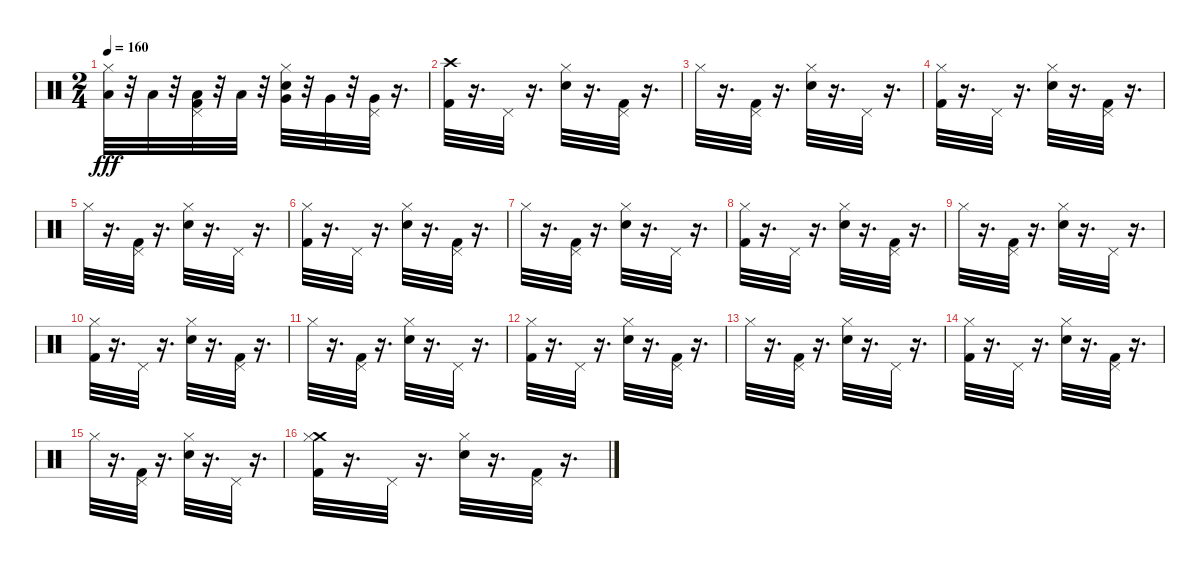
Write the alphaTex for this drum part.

\track "" {instrument percussion}
\staff {score}
\articulation defaults
\ts (2 4)
\tempo 160
\clef neutral
\ks c
("Low Tom (hit)" "Hi-Hat (closed)").32{dy fff} r.32 "Low Tom (hit)".32 r.32 ("Low Tom (hit)" "Pedal Hi-Hat (hit)" "Kick (hit) 2").32 r.32 "Low Tom (hit)".32 r.32 ("Very Low Tom (hit)" "Hi-Hat (closed)" "Snare (hit) 2").32 r.32 "Very Low Tom (hit)".32 r.32 ("Very Low Tom (hit)" "Pedal Hi-Hat (hit)").32 r.16{d} |
("Crash high (hit)" "Kick (hit) 2").32 r.16{d} "Pedal Hi-Hat (hit)".32 r.16{d} ("Hi-Hat (closed)" "Snare (hit) 2").32 r.16{d} ("Pedal Hi-Hat (hit)" "Kick (hit) 2").32 r.16{d} |
"Hi-Hat (closed)".32 r.16{d} ("Pedal Hi-Hat (hit)" "Kick (hit) 2").32 r.16{d} ("Hi-Hat (closed)" "Snare (hit) 2").32 r.16{d} "Pedal Hi-Hat (hit)".32 r.16{d} |
("Hi-Hat (closed)" "Kick (hit) 2").32 r.16{d} "Pedal Hi-Hat (hit)".32 r.16{d} ("Hi-Hat (closed)" "Snare (hit) 2").32 r.16{d} ("Pedal Hi-Hat (hit)" "Kick (hit) 2").32 r.16{d} |
"Hi-Hat (closed)".32 r.16{d} ("Pedal Hi-Hat (hit)" "Kick (hit) 2").32 r.16{d} ("Hi-Hat (closed)" "Snare (hit) 2").32 r.16{d} "Pedal Hi-Hat (hit)".32 r.16{d} |
("Hi-Hat (closed)" "Kick (hit) 2").32 r.16{d} "Pedal Hi-Hat (hit)".32 r.16{d} ("Hi-Hat (closed)" "Snare (hit) 2").32 r.16{d} ("Pedal Hi-Hat (hit)" "Kick (hit) 2").32 r.16{d} |
"Hi-Hat (closed)".32 r.16{d} ("Pedal Hi-Hat (hit)" "Kick (hit) 2").32 r.16{d} ("Hi-Hat (closed)" "Snare (hit) 2").32 r.16{d} "Pedal Hi-Hat (hit)".32 r.16{d} |
("Hi-Hat (closed)" "Kick (hit) 2").32 r.16{d} "Pedal Hi-Hat (hit)".32 r.16{d} ("Hi-Hat (closed)" "Snare (hit) 2").32 r.16{d} ("Pedal Hi-Hat (hit)" "Kick (hit) 2").32 r.16{d} |
"Hi-Hat (closed)".32 r.16{d} ("Pedal Hi-Hat (hit)" "Kick (hit) 2").32 r.16{d} ("Hi-Hat (closed)" "Snare (hit) 2").32 r.16{d} "Pedal Hi-Hat (hit)".32 r.16{d} |
("Hi-Hat (closed)" "Kick (hit) 2").32 r.16{d} "Pedal Hi-Hat (hit)".32 r.16{d} ("Hi-Hat (closed)" "Snare (hit) 2").32 r.16{d} ("Pedal Hi-Hat (hit)" "Kick (hit) 2").32 r.16{d} |
"Hi-Hat (closed)".32 r.16{d} ("Pedal Hi-Hat (hit)" "Kick (hit) 2").32 r.16{d} ("Hi-Hat (closed)" "Snare (hit) 2").32 r.16{d} "Pedal Hi-Hat (hit)".32 r.16{d} |
("Hi-Hat (closed)" "Kick (hit) 2").32 r.16{d} "Pedal Hi-Hat (hit)".32 r.16{d} ("Hi-Hat (closed)" "Snare (hit) 2").32 r.16{d} ("Pedal Hi-Hat (hit)" "Kick (hit) 2").32 r.16{d} |
"Hi-Hat (closed)".32 r.16{d} ("Pedal Hi-Hat (hit)" "Kick (hit) 2").32 r.16{d} ("Hi-Hat (closed)" "Snare (hit) 2").32 r.16{d} "Pedal Hi-Hat (hit)".32 r.16{d} |
("Hi-Hat (closed)" "Kick (hit) 2").32 r.16{d} "Pedal Hi-Hat (hit)".32 r.16{d} ("Hi-Hat (closed)" "Snare (hit) 2").32 r.16{d} ("Pedal Hi-Hat (hit)" "Kick (hit) 2").32 r.16{d} |
"Hi-Hat (closed)".32 r.16{d} ("Pedal Hi-Hat (hit)" "Kick (hit) 2").32 r.16{d} ("Hi-Hat (closed)" "Snare (hit) 2").32 r.16{d} "Pedal Hi-Hat (hit)".32 r.16{d} |
("Crash medium (hit)" "Hi-Hat (closed)" "Kick (hit) 2").32 r.16{d} "Pedal Hi-Hat (hit)".32 r.16{d} ("Hi-Hat (closed)" "Snare (hit) 2").32 r.16{d} ("Pedal Hi-Hat (hit)" "Kick (hit) 2").32 r.16{d}
